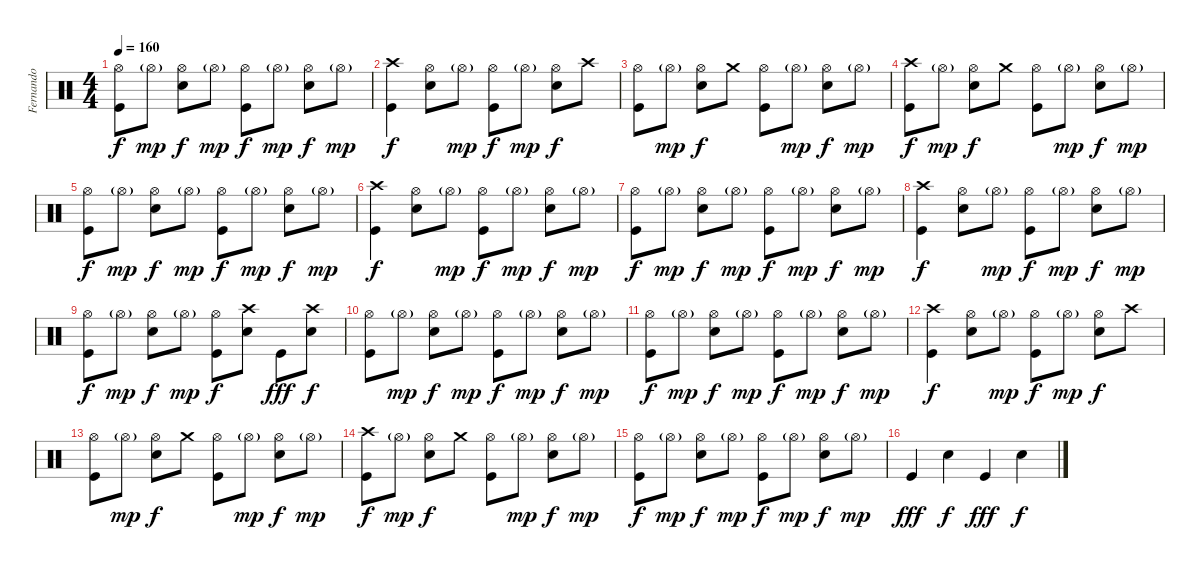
\track ("Fernando" "Fernando") {instrument percussion}
\staff {score}
\articulation defaults
\ts (4 4)
\tempo 160
\clef neutral
\ks c
("Hi-Hat (open)" "Kick (hit)").8{dy f} "Hi-Hat (open)"{g}.8{dy mp} ("Hi-Hat (open)" "Snare (hit) 2").8{dy f} "Hi-Hat (open)"{g}.8{dy mp} ("Hi-Hat (open)" "Kick (hit)").8{dy f} "Hi-Hat (open)"{g}.8{dy mp} ("Hi-Hat (open)" "Snare (hit) 2").8{dy f} "Hi-Hat (open)"{g}.8{dy mp} |
("Crash high (hit)" "Kick (hit)").4{dy f} ("Hi-Hat (open)" "Snare (hit) 2").8 "Hi-Hat (open)"{g}.8{dy mp} ("Hi-Hat (open)" "Kick (hit)").8{dy f} "Hi-Hat (open)"{g}.8{dy mp} ("Hi-Hat (open)" "Snare (hit) 2").8{dy f} "Crash high (hit)".8 |
("Hi-Hat (open)" "Kick (hit)").8 "Hi-Hat (open)"{g}.8{dy mp} ("Hi-Hat (open)" "Snare (hit) 2").8{dy f} "Crash medium (hit)".8 ("Hi-Hat (open)" "Kick (hit)").8 "Hi-Hat (open)"{g}.8{dy mp} ("Hi-Hat (open)" "Snare (hit) 2").8{dy f} "Hi-Hat (open)"{g}.8{dy mp} |
("Crash high (hit)" "Kick (hit)").8{dy f} "Hi-Hat (open)"{g}.8{dy mp} ("Hi-Hat (open)" "Snare (hit) 2").8{dy f} "Crash medium (hit)".8 ("Hi-Hat (open)" "Kick (hit)").8 "Hi-Hat (open)"{g}.8{dy mp} ("Hi-Hat (open)" "Snare (hit) 2").8{dy f} "Hi-Hat (open)"{g}.8{dy mp} |
("Hi-Hat (open)" "Kick (hit)").8{dy f} "Hi-Hat (open)"{g}.8{dy mp} ("Hi-Hat (open)" "Snare (hit) 2").8{dy f} "Hi-Hat (open)"{g}.8{dy mp} ("Hi-Hat (open)" "Kick (hit)").8{dy f} "Hi-Hat (open)"{g}.8{dy mp} ("Hi-Hat (open)" "Snare (hit) 2").8{dy f} "Hi-Hat (open)"{g}.8{dy mp} |
("Crash high (hit)" "Kick (hit)").4{dy f} ("Hi-Hat (open)" "Snare (hit) 2").8 "Hi-Hat (open)"{g}.8{dy mp} ("Hi-Hat (open)" "Kick (hit)").8{dy f} "Hi-Hat (open)"{g}.8{dy mp} ("Hi-Hat (open)" "Snare (hit) 2").8{dy f} "Hi-Hat (open)"{g}.8{dy mp} |
("Hi-Hat (open)" "Kick (hit)").8{dy f} "Hi-Hat (open)"{g}.8{dy mp} ("Hi-Hat (open)" "Snare (hit) 2").8{dy f} "Hi-Hat (open)"{g}.8{dy mp} ("Hi-Hat (open)" "Kick (hit)").8{dy f} "Hi-Hat (open)"{g}.8{dy mp} ("Hi-Hat (open)" "Snare (hit) 2").8{dy f} "Hi-Hat (open)"{g}.8{dy mp} |
("Crash high (hit)" "Kick (hit)").4{dy f} ("Hi-Hat (open)" "Snare (hit) 2").8 "Hi-Hat (open)"{g}.8{dy mp} ("Hi-Hat (open)" "Kick (hit)").8{dy f} "Hi-Hat (open)"{g}.8{dy mp} ("Hi-Hat (open)" "Snare (hit) 2").8{dy f} "Hi-Hat (open)"{g}.8{dy mp} |
("Hi-Hat (open)" "Kick (hit)").8{dy f} "Hi-Hat (open)"{g}.8{dy mp} ("Hi-Hat (open)" "Snare (hit) 2").8{dy f} "Hi-Hat (open)"{g}.8{dy mp} ("Hi-Hat (open)" "Kick (hit)").8{dy f} ("Crash high (hit)" "Snare (hit) 2").8 "Kick (hit)".8{dy fff} ("Crash high (hit)" "Snare (hit) 2").8{dy f} |
("Hi-Hat (open)" "Kick (hit)").8 "Hi-Hat (open)"{g}.8{dy mp} ("Hi-Hat (open)" "Snare (hit) 2").8{dy f} "Hi-Hat (open)"{g}.8{dy mp} ("Hi-Hat (open)" "Kick (hit)").8{dy f} "Hi-Hat (open)"{g}.8{dy mp} ("Hi-Hat (open)" "Snare (hit) 2").8{dy f} "Hi-Hat (open)"{g}.8{dy mp} |
("Hi-Hat (open)" "Kick (hit)").8{dy f} "Hi-Hat (open)"{g}.8{dy mp} ("Hi-Hat (open)" "Snare (hit) 2").8{dy f} "Hi-Hat (open)"{g}.8{dy mp} ("Hi-Hat (open)" "Kick (hit)").8{dy f} "Hi-Hat (open)"{g}.8{dy mp} ("Hi-Hat (open)" "Snare (hit) 2").8{dy f} "Hi-Hat (open)"{g}.8{dy mp} |
("Crash high (hit)" "Kick (hit)").4{dy f} ("Hi-Hat (open)" "Snare (hit) 2").8 "Hi-Hat (open)"{g}.8{dy mp} ("Hi-Hat (open)" "Kick (hit)").8{dy f} "Hi-Hat (open)"{g}.8{dy mp} ("Hi-Hat (open)" "Snare (hit) 2").8{dy f} "Crash high (hit)".8 |
("Hi-Hat (open)" "Kick (hit)").8 "Hi-Hat (open)"{g}.8{dy mp} ("Hi-Hat (open)" "Snare (hit) 2").8{dy f} "Crash medium (hit)".8 ("Hi-Hat (open)" "Kick (hit)").8 "Hi-Hat (open)"{g}.8{dy mp} ("Hi-Hat (open)" "Snare (hit) 2").8{dy f} "Hi-Hat (open)"{g}.8{dy mp} |
("Crash high (hit)" "Kick (hit)").8{dy f} "Hi-Hat (open)"{g}.8{dy mp} ("Hi-Hat (open)" "Snare (hit) 2").8{dy f} "Crash medium (hit)".8 ("Hi-Hat (open)" "Kick (hit)").8 "Hi-Hat (open)"{g}.8{dy mp} ("Hi-Hat (open)" "Snare (hit) 2").8{dy f} "Hi-Hat (open)"{g}.8{dy mp} |
("Hi-Hat (open)" "Kick (hit)").8{dy f} "Hi-Hat (open)"{g}.8{dy mp} ("Hi-Hat (open)" "Snare (hit) 2").8{dy f} "Hi-Hat (open)"{g}.8{dy mp} ("Hi-Hat (open)" "Kick (hit)").8{dy f} "Hi-Hat (open)"{g}.8{dy mp} ("Hi-Hat (open)" "Snare (hit) 2").8{dy f} "Hi-Hat (open)"{g}.8{dy mp} |
"Kick (hit)".4{dy fff} "Snare (hit) 2".4{dy f} "Kick (hit)".4{dy fff} "Snare (hit) 2".4{dy f}
